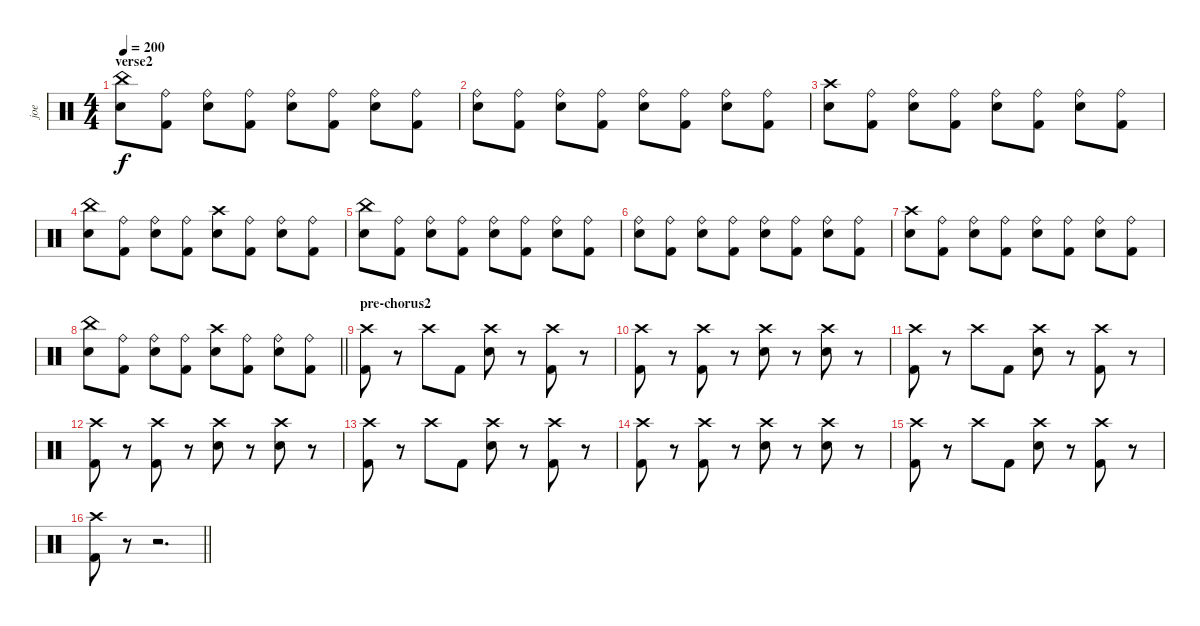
\track ("joe" "joe") {instrument percussion}
\staff {score}
\articulation defaults
\ts (4 4)
\section ("" "verse2")
\tempo 200
\clef neutral
\ks c
("China (hit)" "Snare (hit) 2").8{dy f} ("Ride (bell)" "Kick (hit) 2").8 ("Ride (bell)" "Snare (hit) 2").8 ("Ride (bell)" "Kick (hit) 2").8 ("Ride (bell)" "Snare (hit) 2").8 ("Ride (bell)" "Kick (hit) 2").8 ("Ride (bell)" "Snare (hit) 2").8 ("Ride (bell)" "Kick (hit) 2").8 |
("Ride (bell)" "Snare (hit) 2").8 ("Ride (bell)" "Kick (hit) 2").8 ("Ride (bell)" "Snare (hit) 2").8 ("Ride (bell)" "Kick (hit) 2").8 ("Ride (bell)" "Snare (hit) 2").8 ("Ride (bell)" "Kick (hit) 2").8 ("Ride (bell)" "Snare (hit) 2").8 ("Ride (bell)" "Kick (hit) 2").8 |
("Crash high (hit)" "Snare (hit) 2").8 ("Ride (bell)" "Kick (hit) 2").8 ("Ride (bell)" "Snare (hit) 2").8 ("Ride (bell)" "Kick (hit) 2").8 ("Ride (bell)" "Snare (hit) 2").8 ("Ride (bell)" "Kick (hit) 2").8 ("Ride (bell)" "Snare (hit) 2").8 ("Ride (bell)" "Kick (hit) 2").8 |
("China (hit)" "Snare (hit) 2").8 ("Ride (bell)" "Kick (hit) 2").8 ("Ride (bell)" "Snare (hit) 2").8 ("Ride (bell)" "Kick (hit) 2").8 ("Crash high (hit)" "Snare (hit) 2").8 ("Ride (bell)" "Kick (hit) 2").8 ("Ride (bell)" "Snare (hit) 2").8 ("Ride (bell)" "Kick (hit) 2").8 |
("China (hit)" "Snare (hit) 2").8 ("Ride (bell)" "Kick (hit) 2").8 ("Ride (bell)" "Snare (hit) 2").8 ("Ride (bell)" "Kick (hit) 2").8 ("Ride (bell)" "Snare (hit) 2").8 ("Ride (bell)" "Kick (hit) 2").8 ("Ride (bell)" "Snare (hit) 2").8 ("Ride (bell)" "Kick (hit) 2").8 |
("Ride (bell)" "Snare (hit) 2").8 ("Ride (bell)" "Kick (hit) 2").8 ("Ride (bell)" "Snare (hit) 2").8 ("Ride (bell)" "Kick (hit) 2").8 ("Ride (bell)" "Snare (hit) 2").8 ("Ride (bell)" "Kick (hit) 2").8 ("Ride (bell)" "Snare (hit) 2").8 ("Ride (bell)" "Kick (hit) 2").8 |
("Crash high (hit)" "Snare (hit) 2").8 ("Ride (bell)" "Kick (hit) 2").8 ("Ride (bell)" "Snare (hit) 2").8 ("Ride (bell)" "Kick (hit) 2").8 ("Ride (bell)" "Snare (hit) 2").8 ("Ride (bell)" "Kick (hit) 2").8 ("Ride (bell)" "Snare (hit) 2").8 ("Ride (bell)" "Kick (hit) 2").8 |
\barLineRight lightlight
("China (hit)" "Snare (hit) 2").8 ("Ride (bell)" "Kick (hit) 2").8 ("Ride (bell)" "Snare (hit) 2").8 ("Ride (bell)" "Kick (hit) 2").8 ("Crash high (hit)" "Snare (hit) 2").8 ("Ride (bell)" "Kick (hit) 2").8 ("Ride (bell)" "Snare (hit) 2").8 ("Ride (bell)" "Kick (hit) 2").8 |
\section ("" "pre-chorus2")
("Crash high (hit)" "Kick (hit) 2").8 r.8 "Crash high (hit)".8 "Kick (hit) 2".8 ("Crash high (hit)" "Snare (hit) 2").8 r.8 ("Crash high (hit)" "Kick (hit) 2").8 r.8 |
("Crash high (hit)" "Kick (hit) 2").8 r.8 ("Crash high (hit)" "Kick (hit) 2").8 r.8 ("Crash high (hit)" "Snare (hit) 2").8 r.8 ("Crash high (hit)" "Snare (hit) 2").8 r.8 |
("Crash high (hit)" "Kick (hit) 2").8 r.8 "Crash high (hit)".8 "Kick (hit) 2".8 ("Crash high (hit)" "Snare (hit) 2").8 r.8 ("Crash high (hit)" "Kick (hit) 2").8 r.8 |
("Crash high (hit)" "Kick (hit) 2").8 r.8 ("Crash high (hit)" "Kick (hit) 2").8 r.8 ("Crash high (hit)" "Snare (hit) 2").8 r.8 ("Crash high (hit)" "Snare (hit) 2").8 r.8 |
("Crash high (hit)" "Kick (hit) 2").8 r.8 "Crash high (hit)".8 "Kick (hit) 2".8 ("Crash high (hit)" "Snare (hit) 2").8 r.8 ("Crash high (hit)" "Kick (hit) 2").8 r.8 |
("Crash high (hit)" "Kick (hit) 2").8 r.8 ("Crash high (hit)" "Kick (hit) 2").8 r.8 ("Crash high (hit)" "Snare (hit) 2").8 r.8 ("Crash high (hit)" "Snare (hit) 2").8 r.8 |
("Crash high (hit)" "Kick (hit) 2").8 r.8 "Crash high (hit)".8 "Kick (hit) 2".8 ("Crash high (hit)" "Snare (hit) 2").8 r.8 ("Crash high (hit)" "Kick (hit) 2").8 r.8 |
\barLineRight lightlight
("Crash high (hit)" "Kick (hit) 2").8 r.8 r.2{d}
